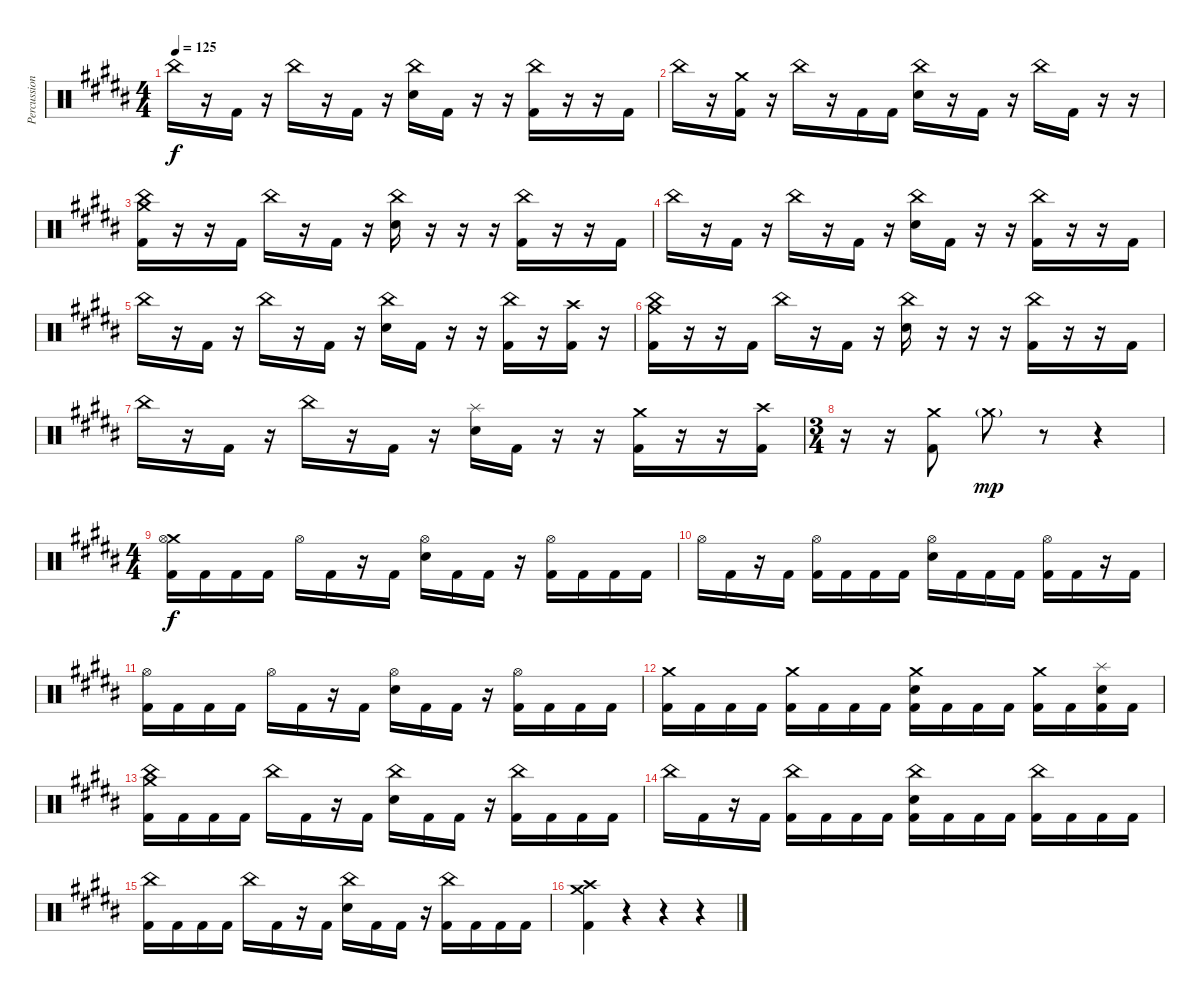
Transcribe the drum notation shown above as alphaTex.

\track ("Percussion" "Percussion") {instrument percussion}
\staff {score}
\articulation defaults
\ts (4 4)
\tempo 125
\clef neutral
\ks g#minor "China (hit)".16{dy f}
r.16 "Kick (hit) 2".16 r.16 "China (hit)".16 r.16 "Kick (hit) 2".16 r.16 ("China (hit)" "Electric Snare (hit)").16 "Kick (hit) 2".16 r.16 r.16 ("China (hit)" "Kick (hit) 2").16 r.16 r.16 "Kick (hit) 2".16 |
"China (hit)".16 r.16 ("Crash medium (hit)" "Kick (hit) 2").16 r.16 "China (hit)".16 r.16 "Kick (hit) 2".16 "Kick (hit) 2".16 ("China (hit)" "Electric Snare (hit)").16 r.16 "Kick (hit) 2".16 r.16 "China (hit)".16 "Kick (hit) 2".16 r.16 r.16 |
("Crash medium (hit)" "China (hit)" "Kick (hit) 2").16 r.16 r.16 "Kick (hit) 2".16 "China (hit)".16 r.16 "Kick (hit) 2".16 r.16 ("China (hit)" "Electric Snare (hit)").16 r.16 r.16 r.16 ("China (hit)" "Kick (hit) 2").16 r.16 r.16 "Kick (hit) 2".16 |
"China (hit)".16 r.16 "Kick (hit) 2".16 r.16 "China (hit)".16 r.16 "Kick (hit) 2".16 r.16 ("China (hit)" "Electric Snare (hit)").16 "Kick (hit) 2".16 r.16 r.16 ("China (hit)" "Kick (hit) 2").16 r.16 r.16 "Kick (hit) 2".16 |
"China (hit)".16 r.16 "Kick (hit) 2".16 r.16 "China (hit)".16 r.16 "Kick (hit) 2".16 r.16 ("China (hit)" "Electric Snare (hit)").16 "Kick (hit) 2".16 r.16 r.16 ("China (hit)" "Kick (hit) 2").16 r.16 ("Crash high (hit)" "Kick (hit) 2").16 r.16 |
("Crash medium (hit)" "China (hit)" "Kick (hit) 2").16 r.16 r.16 "Kick (hit) 2".16 "China (hit)".16 r.16 "Kick (hit) 2".16 r.16 ("China (hit)" "Electric Snare (hit)").16 r.16 r.16 r.16 ("China (hit)" "Kick (hit) 2").16 r.16 r.16 "Kick (hit) 2".16 |
"China (hit)".16 r.16 "Kick (hit) 2".16 r.16 "China (hit)".16 r.16 "Kick (hit) 2".16 r.16 ("Splash (hit)" "Electric Snare (hit)").16 "Kick (hit) 2".16 r.16 r.16 ("Crash medium (hit)" "Kick (hit) 2").16 r.16 r.16 ("Crash high (hit)" "Kick (hit) 2").16 |
\ts (3 4)
r.16 r.16 ("Crash medium (hit)" "Kick (hit) 2").8 "Crash medium (hit)"{g}.8{dy mp} r.8 r.4 |
\ts (4 4)
("Crash medium (hit)" "Hi-Hat (open)" "Kick (hit) 2").16{dy f} "Kick (hit) 2".16 "Kick (hit) 2".16 "Kick (hit) 2".16 "Hi-Hat (open)".16 "Kick (hit) 2".16 r.16 "Kick (hit) 2".16 ("Hi-Hat (open)" "Electric Snare (hit)").16 "Kick (hit) 2".16 "Kick (hit) 2".16 r.16 ("Hi-Hat (open)" "Kick (hit) 2").16 "Kick (hit) 2".16 "Kick (hit) 2".16 "Kick (hit) 2".16 |
"Hi-Hat (open)".16 "Kick (hit) 2".16 r.16 "Kick (hit) 2".16 ("Hi-Hat (open)" "Kick (hit) 2").16 "Kick (hit) 2".16 "Kick (hit) 2".16 "Kick (hit) 2".16 ("Hi-Hat (open)" "Electric Snare (hit)").16 "Kick (hit) 2".16 "Kick (hit) 2".16 "Kick (hit) 2".16 ("Hi-Hat (open)" "Kick (hit) 2").16 "Kick (hit) 2".16 r.16 "Kick (hit) 2".16 |
("Hi-Hat (open)" "Kick (hit) 2").16 "Kick (hit) 2".16 "Kick (hit) 2".16 "Kick (hit) 2".16 "Hi-Hat (open)".16 "Kick (hit) 2".16 r.16 "Kick (hit) 2".16 ("Hi-Hat (open)" "Electric Snare (hit)").16 "Kick (hit) 2".16 "Kick (hit) 2".16 r.16 ("Hi-Hat (open)" "Kick (hit) 2").16 "Kick (hit) 2".16 "Kick (hit) 2".16 "Kick (hit) 2".16 |
("Crash medium (hit)" "Kick (hit) 2").16 "Kick (hit) 2".16 "Kick (hit) 2".16 "Kick (hit) 2".16 ("Crash medium (hit)" "Kick (hit) 2").16 "Kick (hit) 2".16 "Kick (hit) 2".16 "Kick (hit) 2".16 ("Crash medium (hit)" "Electric Snare (hit)" "Kick (hit) 2").16 "Kick (hit) 2".16 "Kick (hit) 2".16 "Kick (hit) 2".16 ("Crash medium (hit)" "Kick (hit) 2").16 "Kick (hit) 2".16 ("Splash (hit)" "Electric Snare (hit)" "Kick (hit) 2").16 "Kick (hit) 2".16 |
("Crash medium (hit)" "China (hit)" "Kick (hit) 2").16 "Kick (hit) 2".16 "Kick (hit) 2".16 "Kick (hit) 2".16 "China (hit)".16 "Kick (hit) 2".16 r.16 "Kick (hit) 2".16 ("China (hit)" "Electric Snare (hit)").16 "Kick (hit) 2".16 "Kick (hit) 2".16 r.16 ("China (hit)" "Kick (hit) 2").16 "Kick (hit) 2".16 "Kick (hit) 2".16 "Kick (hit) 2".16 |
"China (hit)".16 "Kick (hit) 2".16 r.16 "Kick (hit) 2".16 ("China (hit)" "Kick (hit) 2").16 "Kick (hit) 2".16 "Kick (hit) 2".16 "Kick (hit) 2".16 ("China (hit)" "Electric Snare (hit)" "Kick (hit) 2").16 "Kick (hit) 2".16 "Kick (hit) 2".16 "Kick (hit) 2".16 ("China (hit)" "Kick (hit) 2").16 "Kick (hit) 2".16 "Kick (hit) 2".16 "Kick (hit) 2".16 |
("China (hit)" "Kick (hit) 2").16 "Kick (hit) 2".16 "Kick (hit) 2".16 "Kick (hit) 2".16 "China (hit)".16 "Kick (hit) 2".16 r.16 "Kick (hit) 2".16 ("China (hit)" "Electric Snare (hit)").16 "Kick (hit) 2".16 "Kick (hit) 2".16 r.16 ("China (hit)" "Kick (hit) 2").16 "Kick (hit) 2".16 "Kick (hit) 2".16 "Kick (hit) 2".16 |
("Crash medium (hit)" "Crash high (hit)" "Kick (hit) 2").4 r.4 r.4 r.4
